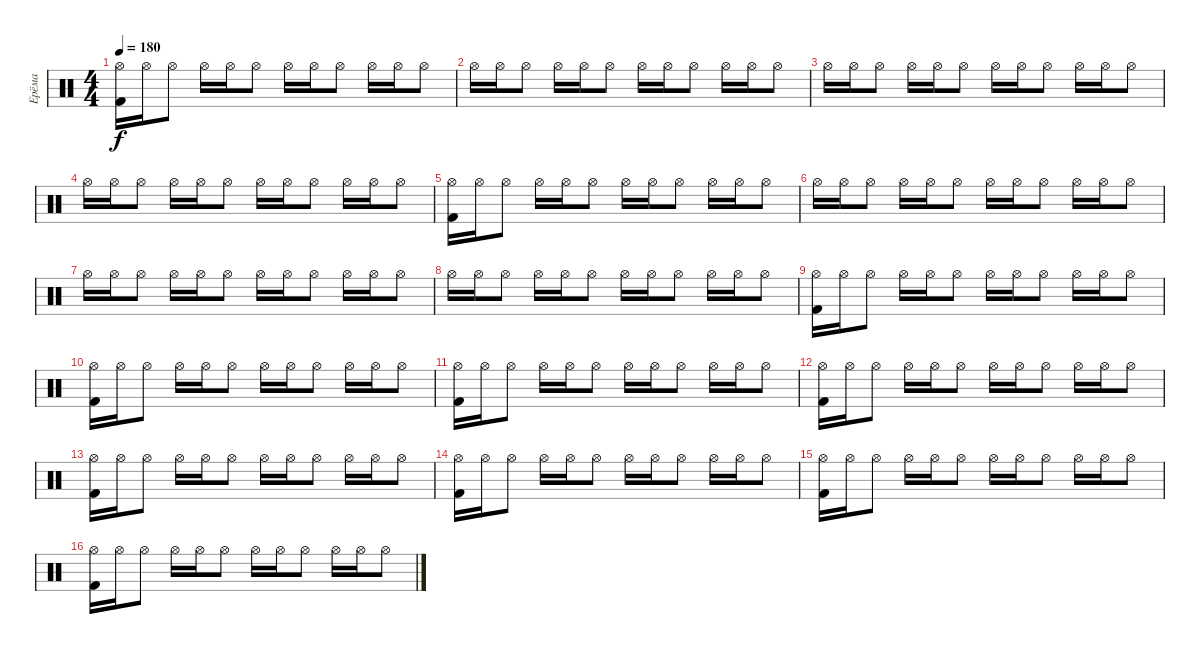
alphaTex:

\track ("Ерёма" "Ерёма") {instrument percussion}
\staff {score}
\articulation defaults
\ts (4 4)
\tempo 180
\clef neutral
\ks c
("Hi-Hat (open)" "Kick (hit) 2").16{dy f} "Hi-Hat (open)".16 "Hi-Hat (open)".8 "Hi-Hat (open)".16 "Hi-Hat (open)".16 "Hi-Hat (open)".8 "Hi-Hat (open)".16 "Hi-Hat (open)".16 "Hi-Hat (open)".8 "Hi-Hat (open)".16 "Hi-Hat (open)".16 "Hi-Hat (open)".8 |
"Hi-Hat (open)".16 "Hi-Hat (open)".16 "Hi-Hat (open)".8 "Hi-Hat (open)".16 "Hi-Hat (open)".16 "Hi-Hat (open)".8 "Hi-Hat (open)".16 "Hi-Hat (open)".16 "Hi-Hat (open)".8 "Hi-Hat (open)".16 "Hi-Hat (open)".16 "Hi-Hat (open)".8 |
"Hi-Hat (open)".16 "Hi-Hat (open)".16 "Hi-Hat (open)".8 "Hi-Hat (open)".16 "Hi-Hat (open)".16 "Hi-Hat (open)".8 "Hi-Hat (open)".16 "Hi-Hat (open)".16 "Hi-Hat (open)".8 "Hi-Hat (open)".16 "Hi-Hat (open)".16 "Hi-Hat (open)".8 |
"Hi-Hat (open)".16 "Hi-Hat (open)".16 "Hi-Hat (open)".8 "Hi-Hat (open)".16 "Hi-Hat (open)".16 "Hi-Hat (open)".8 "Hi-Hat (open)".16 "Hi-Hat (open)".16 "Hi-Hat (open)".8 "Hi-Hat (open)".16 "Hi-Hat (open)".16 "Hi-Hat (open)".8 |
("Hi-Hat (open)" "Kick (hit) 2").16 "Hi-Hat (open)".16 "Hi-Hat (open)".8 "Hi-Hat (open)".16 "Hi-Hat (open)".16 "Hi-Hat (open)".8 "Hi-Hat (open)".16 "Hi-Hat (open)".16 "Hi-Hat (open)".8 "Hi-Hat (open)".16 "Hi-Hat (open)".16 "Hi-Hat (open)".8 |
"Hi-Hat (open)".16 "Hi-Hat (open)".16 "Hi-Hat (open)".8 "Hi-Hat (open)".16 "Hi-Hat (open)".16 "Hi-Hat (open)".8 "Hi-Hat (open)".16 "Hi-Hat (open)".16 "Hi-Hat (open)".8 "Hi-Hat (open)".16 "Hi-Hat (open)".16 "Hi-Hat (open)".8 |
"Hi-Hat (open)".16 "Hi-Hat (open)".16 "Hi-Hat (open)".8 "Hi-Hat (open)".16 "Hi-Hat (open)".16 "Hi-Hat (open)".8 "Hi-Hat (open)".16 "Hi-Hat (open)".16 "Hi-Hat (open)".8 "Hi-Hat (open)".16 "Hi-Hat (open)".16 "Hi-Hat (open)".8 |
"Hi-Hat (open)".16 "Hi-Hat (open)".16 "Hi-Hat (open)".8 "Hi-Hat (open)".16 "Hi-Hat (open)".16 "Hi-Hat (open)".8 "Hi-Hat (open)".16 "Hi-Hat (open)".16 "Hi-Hat (open)".8 "Hi-Hat (open)".16 "Hi-Hat (open)".16 "Hi-Hat (open)".8 |
("Hi-Hat (open)" "Kick (hit) 2").16 "Hi-Hat (open)".16 "Hi-Hat (open)".8 "Hi-Hat (open)".16 "Hi-Hat (open)".16 "Hi-Hat (open)".8 "Hi-Hat (open)".16 "Hi-Hat (open)".16 "Hi-Hat (open)".8 "Hi-Hat (open)".16 "Hi-Hat (open)".16 "Hi-Hat (open)".8 |
("Hi-Hat (open)" "Kick (hit) 2").16 "Hi-Hat (open)".16 "Hi-Hat (open)".8 "Hi-Hat (open)".16 "Hi-Hat (open)".16 "Hi-Hat (open)".8 "Hi-Hat (open)".16 "Hi-Hat (open)".16 "Hi-Hat (open)".8 "Hi-Hat (open)".16 "Hi-Hat (open)".16 "Hi-Hat (open)".8 |
("Hi-Hat (open)" "Kick (hit) 2").16 "Hi-Hat (open)".16 "Hi-Hat (open)".8 "Hi-Hat (open)".16 "Hi-Hat (open)".16 "Hi-Hat (open)".8 "Hi-Hat (open)".16 "Hi-Hat (open)".16 "Hi-Hat (open)".8 "Hi-Hat (open)".16 "Hi-Hat (open)".16 "Hi-Hat (open)".8 |
("Hi-Hat (open)" "Kick (hit) 2").16 "Hi-Hat (open)".16 "Hi-Hat (open)".8 "Hi-Hat (open)".16 "Hi-Hat (open)".16 "Hi-Hat (open)".8 "Hi-Hat (open)".16 "Hi-Hat (open)".16 "Hi-Hat (open)".8 "Hi-Hat (open)".16 "Hi-Hat (open)".16 "Hi-Hat (open)".8 |
("Hi-Hat (open)" "Kick (hit) 2").16 "Hi-Hat (open)".16 "Hi-Hat (open)".8 "Hi-Hat (open)".16 "Hi-Hat (open)".16 "Hi-Hat (open)".8 "Hi-Hat (open)".16 "Hi-Hat (open)".16 "Hi-Hat (open)".8 "Hi-Hat (open)".16 "Hi-Hat (open)".16 "Hi-Hat (open)".8 |
("Hi-Hat (open)" "Kick (hit) 2").16 "Hi-Hat (open)".16 "Hi-Hat (open)".8 "Hi-Hat (open)".16 "Hi-Hat (open)".16 "Hi-Hat (open)".8 "Hi-Hat (open)".16 "Hi-Hat (open)".16 "Hi-Hat (open)".8 "Hi-Hat (open)".16 "Hi-Hat (open)".16 "Hi-Hat (open)".8 |
("Hi-Hat (open)" "Kick (hit) 2").16 "Hi-Hat (open)".16 "Hi-Hat (open)".8 "Hi-Hat (open)".16 "Hi-Hat (open)".16 "Hi-Hat (open)".8 "Hi-Hat (open)".16 "Hi-Hat (open)".16 "Hi-Hat (open)".8 "Hi-Hat (open)".16 "Hi-Hat (open)".16 "Hi-Hat (open)".8 |
("Hi-Hat (open)" "Kick (hit) 2").16 "Hi-Hat (open)".16 "Hi-Hat (open)".8 "Hi-Hat (open)".16 "Hi-Hat (open)".16 "Hi-Hat (open)".8 "Hi-Hat (open)".16 "Hi-Hat (open)".16 "Hi-Hat (open)".8 "Hi-Hat (open)".16 "Hi-Hat (open)".16 "Hi-Hat (open)".8
